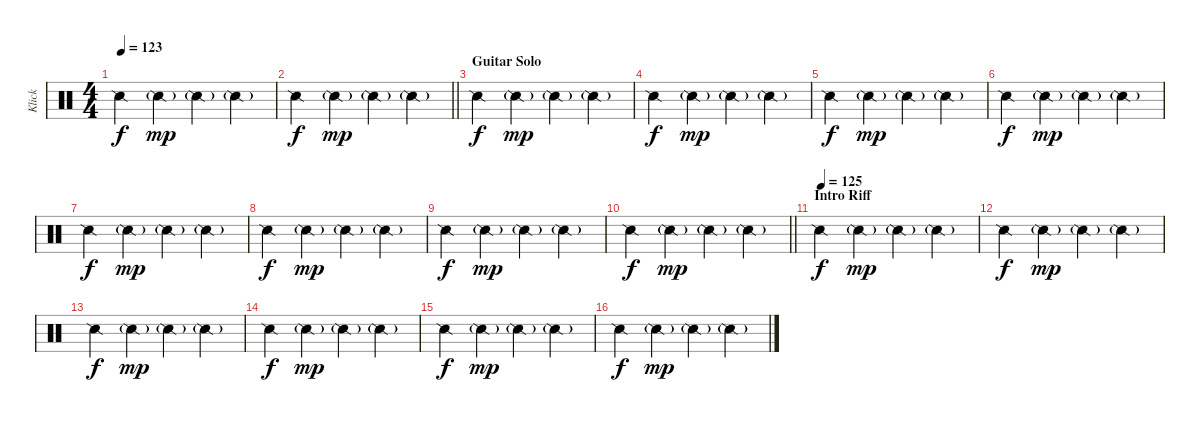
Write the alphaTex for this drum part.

\track ("Klick" "Klick") {instrument percussion}
\staff {score}
\articulation defaults
\ts (4 4)
\tempo 123
\clef neutral
\ks c "Snare (side stick) 2".4{dy f} "Snare (side stick) 2"{g}.4{dy mp} "Snare (side stick) 2"{g}.4 "Snare (side stick) 2"{g}.4
|
\barLineRight lightlight "Snare (side stick) 2".4{dy f} "Snare (side stick) 2"{g}.4{dy mp} "Snare (side stick) 2"{g}.4 "Snare (side stick) 2"{g}.4
|
\section ("" "Guitar Solo")
"Snare (side stick) 2".4{dy f} "Snare (side stick) 2"{g}.4{dy mp} "Snare (side stick) 2"{g}.4 "Snare (side stick) 2"{g}.4 |
"Snare (side stick) 2".4{dy f} "Snare (side stick) 2"{g}.4{dy mp} "Snare (side stick) 2"{g}.4 "Snare (side stick) 2"{g}.4 |
"Snare (side stick) 2".4{dy f} "Snare (side stick) 2"{g}.4{dy mp} "Snare (side stick) 2"{g}.4 "Snare (side stick) 2"{g}.4 |
"Snare (side stick) 2".4{dy f} "Snare (side stick) 2"{g}.4{dy mp} "Snare (side stick) 2"{g}.4 "Snare (side stick) 2"{g}.4 |
"Snare (side stick) 2".4{dy f} "Snare (side stick) 2"{g}.4{dy mp} "Snare (side stick) 2"{g}.4 "Snare (side stick) 2"{g}.4 |
"Snare (side stick) 2".4{dy f} "Snare (side stick) 2"{g}.4{dy mp} "Snare (side stick) 2"{g}.4 "Snare (side stick) 2"{g}.4 |
"Snare (side stick) 2".4{dy f} "Snare (side stick) 2"{g}.4{dy mp} "Snare (side stick) 2"{g}.4 "Snare (side stick) 2"{g}.4 |
\barLineRight lightlight "Snare (side stick) 2".4{dy f} "Snare (side stick) 2"{g}.4{dy mp} "Snare (side stick) 2"{g}.4 "Snare (side stick) 2"{g}.4
|
\section ("" "Intro Riff")
\tempo (125)
"Snare (side stick) 2".4{dy f} "Snare (side stick) 2"{g}.4{dy mp} "Snare (side stick) 2"{g}.4 "Snare (side stick) 2"{g}.4 |
"Snare (side stick) 2".4{dy f} "Snare (side stick) 2"{g}.4{dy mp} "Snare (side stick) 2"{g}.4 "Snare (side stick) 2"{g}.4 |
"Snare (side stick) 2".4{dy f} "Snare (side stick) 2"{g}.4{dy mp} "Snare (side stick) 2"{g}.4 "Snare (side stick) 2"{g}.4 |
"Snare (side stick) 2".4{dy f} "Snare (side stick) 2"{g}.4{dy mp} "Snare (side stick) 2"{g}.4 "Snare (side stick) 2"{g}.4 |
"Snare (side stick) 2".4{dy f} "Snare (side stick) 2"{g}.4{dy mp} "Snare (side stick) 2"{g}.4 "Snare (side stick) 2"{g}.4 |
"Snare (side stick) 2".4{dy f} "Snare (side stick) 2"{g}.4{dy mp} "Snare (side stick) 2"{g}.4 "Snare (side stick) 2"{g}.4
